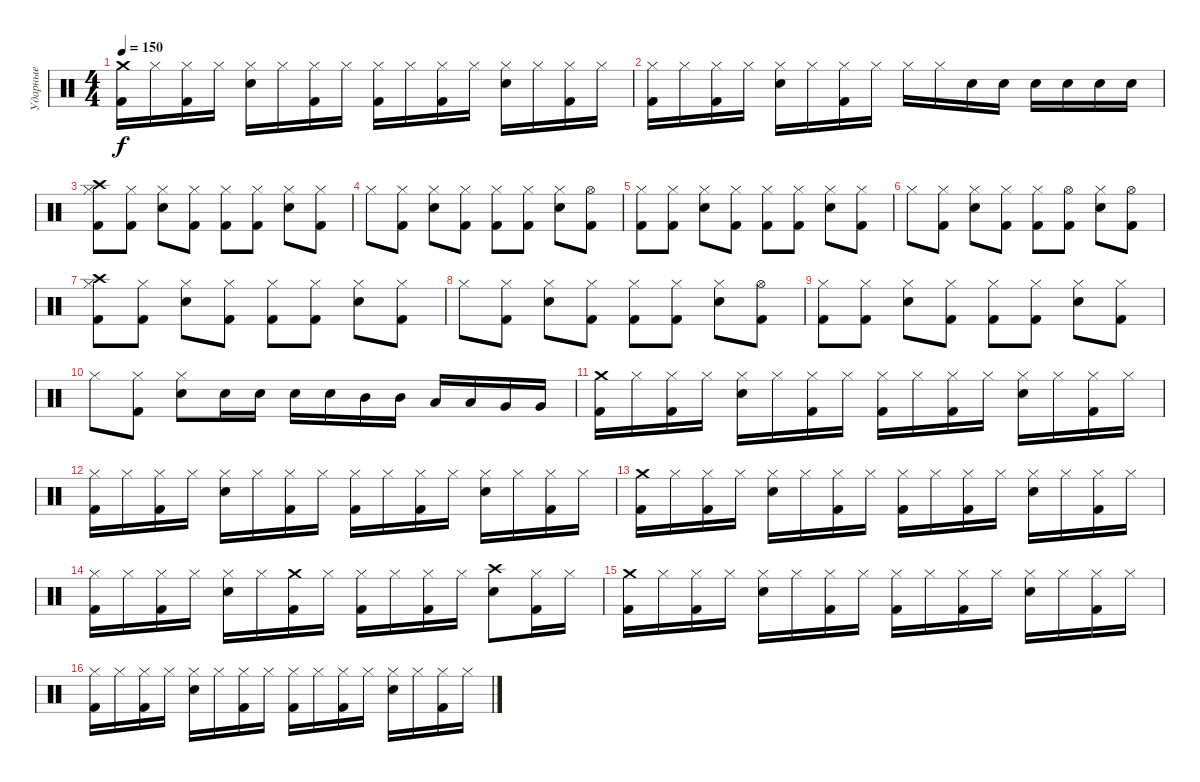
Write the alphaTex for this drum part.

\track ("Ударные" "Ударные") {instrument percussion}
\staff {score}
\articulation defaults
\ts (4 4)
\tempo 150
\clef neutral
\ks c
("Crash medium (hit)" "Kick (hit) 2").16{dy f} "Hi-Hat (closed)".16 ("Hi-Hat (closed)" "Kick (hit) 2").16 "Hi-Hat (closed)".16 ("Hi-Hat (closed)" "Electric Snare (hit)").16 "Hi-Hat (closed)".16 ("Hi-Hat (closed)" "Kick (hit) 2").16 "Hi-Hat (closed)".16 ("Hi-Hat (closed)" "Kick (hit) 2").16 "Hi-Hat (closed)".16 ("Hi-Hat (closed)" "Kick (hit) 2").16 "Hi-Hat (closed)".16 ("Hi-Hat (closed)" "Electric Snare (hit)").16 "Hi-Hat (closed)".16 ("Hi-Hat (closed)" "Kick (hit) 2").16 "Hi-Hat (closed)".16 |
("Hi-Hat (closed)" "Kick (hit) 2").16 "Hi-Hat (closed)".16 ("Hi-Hat (closed)" "Kick (hit) 2").16 "Hi-Hat (closed)".16 ("Hi-Hat (closed)" "Electric Snare (hit)").16 "Hi-Hat (closed)".16 ("Hi-Hat (closed)" "Kick (hit) 2").16 "Hi-Hat (closed)".16 "Hi-Hat (closed)".16 "Hi-Hat (closed)".16 "Electric Snare (hit)".16 "Electric Snare (hit)".16 "Electric Snare (hit)".16 "Electric Snare (hit)".16 "Electric Snare (hit)".16 "Electric Snare (hit)".16 |
("Crash high (hit)" "Hi-Hat (closed)" "Kick (hit) 2").8 ("Hi-Hat (closed)" "Kick (hit) 2").8 ("Hi-Hat (closed)" "Electric Snare (hit)").8 ("Hi-Hat (closed)" "Kick (hit) 2").8 ("Hi-Hat (closed)" "Kick (hit) 2").8 ("Hi-Hat (closed)" "Kick (hit) 2").8 ("Hi-Hat (closed)" "Electric Snare (hit)").8 ("Hi-Hat (closed)" "Kick (hit) 2").8 |
"Hi-Hat (closed)".8 ("Hi-Hat (closed)" "Kick (hit) 2").8 ("Hi-Hat (closed)" "Electric Snare (hit)").8 ("Hi-Hat (closed)" "Kick (hit) 2").8 ("Hi-Hat (closed)" "Kick (hit) 2").8 ("Hi-Hat (closed)" "Kick (hit) 2").8 ("Hi-Hat (closed)" "Electric Snare (hit)").8 ("Hi-Hat (open)" "Kick (hit) 2").8 |
("Hi-Hat (closed)" "Kick (hit) 2").8 ("Hi-Hat (closed)" "Kick (hit) 2").8 ("Hi-Hat (closed)" "Electric Snare (hit)").8 ("Hi-Hat (closed)" "Kick (hit) 2").8 ("Hi-Hat (closed)" "Kick (hit) 2").8 ("Hi-Hat (closed)" "Kick (hit) 2").8 ("Hi-Hat (closed)" "Electric Snare (hit)").8 ("Hi-Hat (closed)" "Kick (hit) 2").8 |
"Hi-Hat (closed)".8 ("Hi-Hat (closed)" "Kick (hit) 2").8 ("Hi-Hat (closed)" "Electric Snare (hit)").8 ("Hi-Hat (closed)" "Kick (hit) 2").8 ("Hi-Hat (closed)" "Kick (hit) 2").8 ("Hi-Hat (open)" "Kick (hit) 2").8 ("Hi-Hat (closed)" "Electric Snare (hit)").8 ("Hi-Hat (open)" "Kick (hit) 2").8 |
("Crash high (hit)" "Hi-Hat (closed)" "Kick (hit) 2").8 ("Hi-Hat (closed)" "Kick (hit) 2").8 ("Hi-Hat (closed)" "Electric Snare (hit)").8 ("Hi-Hat (closed)" "Kick (hit) 2").8 ("Hi-Hat (closed)" "Kick (hit) 2").8 ("Hi-Hat (closed)" "Kick (hit) 2").8 ("Hi-Hat (closed)" "Electric Snare (hit)").8 ("Hi-Hat (closed)" "Kick (hit) 2").8 |
"Hi-Hat (closed)".8 ("Hi-Hat (closed)" "Kick (hit) 2").8 ("Hi-Hat (closed)" "Electric Snare (hit)").8 ("Hi-Hat (closed)" "Kick (hit) 2").8 ("Hi-Hat (closed)" "Kick (hit) 2").8 ("Hi-Hat (closed)" "Kick (hit) 2").8 ("Hi-Hat (closed)" "Electric Snare (hit)").8 ("Hi-Hat (open)" "Kick (hit) 2").8 |
("Hi-Hat (closed)" "Kick (hit) 2").8 ("Hi-Hat (closed)" "Kick (hit) 2").8 ("Hi-Hat (closed)" "Electric Snare (hit)").8 ("Hi-Hat (closed)" "Kick (hit) 2").8 ("Hi-Hat (closed)" "Kick (hit) 2").8 ("Hi-Hat (closed)" "Kick (hit) 2").8 ("Hi-Hat (closed)" "Electric Snare (hit)").8 ("Hi-Hat (closed)" "Kick (hit) 2").8 |
"Hi-Hat (closed)".8 ("Hi-Hat (closed)" "Kick (hit) 2").8 ("Hi-Hat (closed)" "Electric Snare (hit)").8 "Electric Snare (hit)".16 "Electric Snare (hit)".16 "Electric Snare (hit)".16 "Electric Snare (hit)".16 "Mid Tom (hit)".16 "Mid Tom (hit)".16 "Low Tom (hit)".16 "Low Tom (hit)".16 "Very Low Tom (hit)".16 "Very Low Tom (hit)".16 |
("Crash medium (hit)" "Kick (hit) 2").16 "Hi-Hat (closed)".16 ("Hi-Hat (closed)" "Kick (hit) 2").16 "Hi-Hat (closed)".16 ("Hi-Hat (closed)" "Electric Snare (hit)").16 "Hi-Hat (closed)".16 ("Hi-Hat (closed)" "Kick (hit) 2").16 "Hi-Hat (closed)".16 ("Hi-Hat (closed)" "Kick (hit) 2").16 "Hi-Hat (closed)".16 ("Hi-Hat (closed)" "Kick (hit) 2").16 "Hi-Hat (closed)".16 ("Hi-Hat (closed)" "Electric Snare (hit)").16 "Hi-Hat (closed)".16 ("Hi-Hat (closed)" "Kick (hit) 2").16 "Hi-Hat (closed)".16 |
("Hi-Hat (closed)" "Kick (hit) 2").16 "Hi-Hat (closed)".16 ("Hi-Hat (closed)" "Kick (hit) 2").16 "Hi-Hat (closed)".16 ("Hi-Hat (closed)" "Electric Snare (hit)").16 "Hi-Hat (closed)".16 ("Hi-Hat (closed)" "Kick (hit) 2").16 "Hi-Hat (closed)".16 ("Hi-Hat (closed)" "Kick (hit) 2").16 "Hi-Hat (closed)".16 ("Hi-Hat (closed)" "Kick (hit) 2").16 "Hi-Hat (closed)".16 ("Hi-Hat (closed)" "Electric Snare (hit)").16 "Hi-Hat (closed)".16 ("Hi-Hat (closed)" "Kick (hit) 2").16 "Hi-Hat (closed)".16 |
("Crash medium (hit)" "Kick (hit) 2").16 "Hi-Hat (closed)".16 ("Hi-Hat (closed)" "Kick (hit) 2").16 "Hi-Hat (closed)".16 ("Hi-Hat (closed)" "Electric Snare (hit)").16 "Hi-Hat (closed)".16 ("Hi-Hat (closed)" "Kick (hit) 2").16 "Hi-Hat (closed)".16 ("Hi-Hat (closed)" "Kick (hit) 2").16 "Hi-Hat (closed)".16 ("Hi-Hat (closed)" "Kick (hit) 2").16 "Hi-Hat (closed)".16 ("Hi-Hat (closed)" "Electric Snare (hit)").16 "Hi-Hat (closed)".16 ("Hi-Hat (closed)" "Kick (hit) 2").16 "Hi-Hat (closed)".16 |
("Hi-Hat (closed)" "Kick (hit) 2").16 "Hi-Hat (closed)".16 ("Hi-Hat (closed)" "Kick (hit) 2").16 "Hi-Hat (closed)".16 ("Hi-Hat (closed)" "Electric Snare (hit)").16 "Hi-Hat (closed)".16 ("Crash medium (hit)" "Kick (hit) 2").16 "Hi-Hat (closed)".16 ("Hi-Hat (closed)" "Kick (hit) 2").16 "Hi-Hat (closed)".16 ("Hi-Hat (closed)" "Kick (hit) 2").16 "Hi-Hat (closed)".16 ("Crash high (hit)" "Electric Snare (hit)").8 ("Hi-Hat (closed)" "Kick (hit) 2").16 "Hi-Hat (closed)".16 |
("Crash medium (hit)" "Kick (hit) 2").16 "Hi-Hat (closed)".16 ("Hi-Hat (closed)" "Kick (hit) 2").16 "Hi-Hat (closed)".16 ("Hi-Hat (closed)" "Electric Snare (hit)").16 "Hi-Hat (closed)".16 ("Hi-Hat (closed)" "Kick (hit) 2").16 "Hi-Hat (closed)".16 ("Hi-Hat (closed)" "Kick (hit) 2").16 "Hi-Hat (closed)".16 ("Hi-Hat (closed)" "Kick (hit) 2").16 "Hi-Hat (closed)".16 ("Hi-Hat (closed)" "Electric Snare (hit)").16 "Hi-Hat (closed)".16 ("Hi-Hat (closed)" "Kick (hit) 2").16 "Hi-Hat (closed)".16 |
("Hi-Hat (closed)" "Kick (hit) 2").16 "Hi-Hat (closed)".16 ("Hi-Hat (closed)" "Kick (hit) 2").16 "Hi-Hat (closed)".16 ("Hi-Hat (closed)" "Electric Snare (hit)").16 "Hi-Hat (closed)".16 ("Hi-Hat (closed)" "Kick (hit) 2").16 "Hi-Hat (closed)".16 ("Hi-Hat (closed)" "Kick (hit) 2").16 "Hi-Hat (closed)".16 ("Hi-Hat (closed)" "Kick (hit) 2").16 "Hi-Hat (closed)".16 ("Hi-Hat (closed)" "Electric Snare (hit)").16 "Hi-Hat (closed)".16 ("Hi-Hat (closed)" "Kick (hit) 2").16 "Hi-Hat (closed)".16
